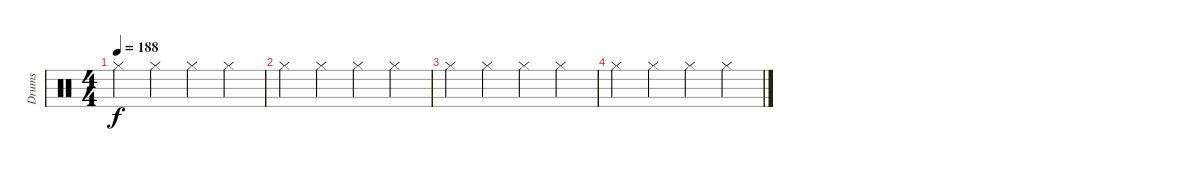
\track ("Drums" "Drums") {instrument percussion}
\staff {score}
\articulation defaults
\ts (4 4)
\tempo 188
\clef neutral
\ks c "Hi-Hat (closed)".4{dy f} "Hi-Hat (closed)".4 "Hi-Hat (closed)".4 "Hi-Hat (closed)".4
|
"Hi-Hat (closed)".4 "Hi-Hat (closed)".4 "Hi-Hat (closed)".4 "Hi-Hat (closed)".4 |
"Hi-Hat (closed)".4 "Hi-Hat (closed)".4 "Hi-Hat (closed)".4 "Hi-Hat (closed)".4 |
"Hi-Hat (closed)".4 "Hi-Hat (closed)".4 "Hi-Hat (closed)".4 "Hi-Hat (closed)".4
